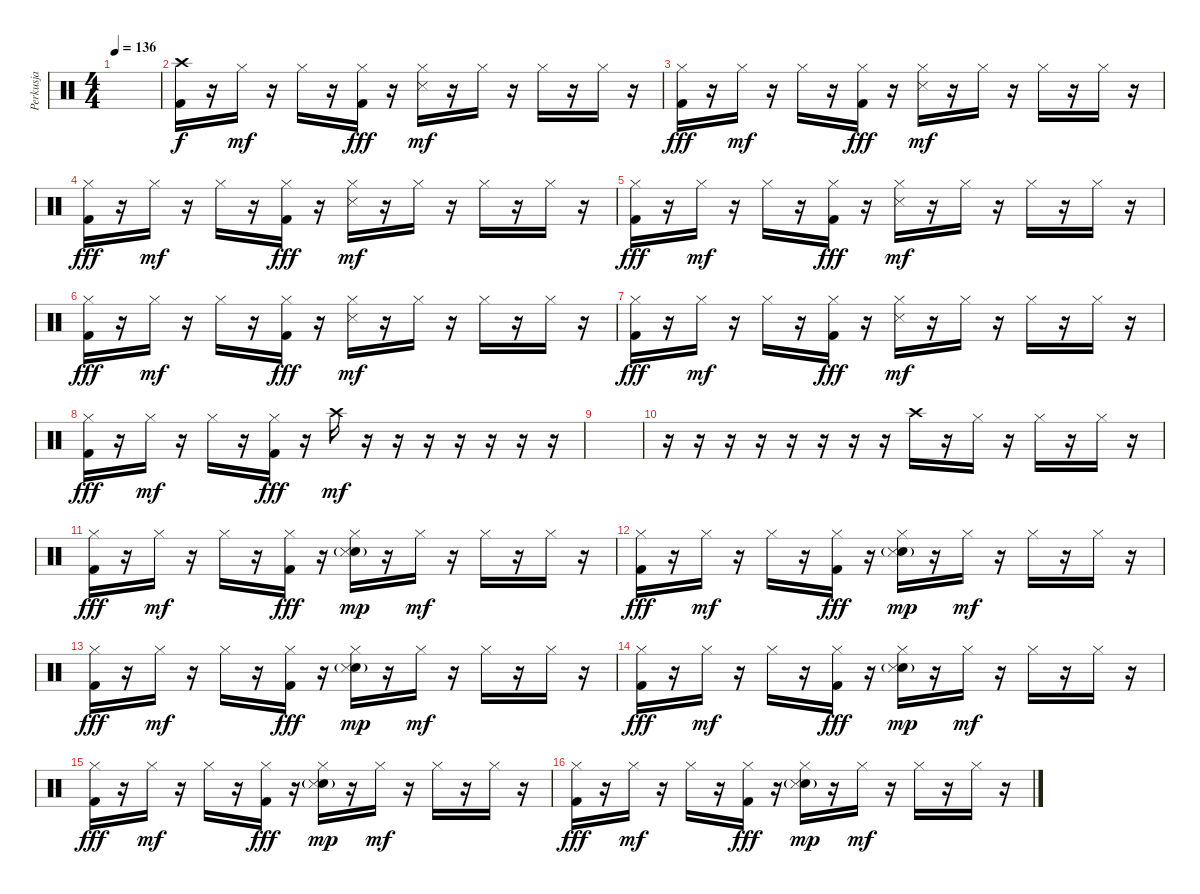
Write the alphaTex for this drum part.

\track ("Perkusja" "Perkusja") {instrument percussion}
\staff {score}
\articulation defaults
\ts (4 4)
\tempo 136
\clef neutral
\ks c
|
("Crash high (hit)" "Kick (hit) 2").16 r.16 "Hi-Hat (closed)".16{dy mf} r.16 "Hi-Hat (closed)".16 r.16 ("Hi-Hat (closed)" "Kick (hit) 2").16{dy fff} r.16 ("Hi-Hat (closed)" "Snare (side stick) 3").16{dy mf} r.16 "Hi-Hat (closed)".16 r.16 "Hi-Hat (closed)".16 r.16 "Hi-Hat (closed)".16 r.16 |
("Hi-Hat (closed)" "Kick (hit) 2").16{dy fff} r.16 "Hi-Hat (closed)".16{dy mf} r.16 "Hi-Hat (closed)".16 r.16 ("Hi-Hat (closed)" "Kick (hit) 2").16{dy fff} r.16 ("Hi-Hat (closed)" "Snare (side stick) 3").16{dy mf} r.16 "Hi-Hat (closed)".16 r.16 "Hi-Hat (closed)".16 r.16 "Hi-Hat (closed)".16 r.16 |
("Hi-Hat (closed)" "Kick (hit) 2").16{dy fff} r.16 "Hi-Hat (closed)".16{dy mf} r.16 "Hi-Hat (closed)".16 r.16 ("Hi-Hat (closed)" "Kick (hit) 2").16{dy fff} r.16 ("Hi-Hat (closed)" "Snare (side stick) 3").16{dy mf} r.16 "Hi-Hat (closed)".16 r.16 "Hi-Hat (closed)".16 r.16 "Hi-Hat (closed)".16 r.16 |
("Hi-Hat (closed)" "Kick (hit) 2").16{dy fff} r.16 "Hi-Hat (closed)".16{dy mf} r.16 "Hi-Hat (closed)".16 r.16 ("Hi-Hat (closed)" "Kick (hit) 2").16{dy fff} r.16 ("Hi-Hat (closed)" "Snare (side stick) 3").16{dy mf} r.16 "Hi-Hat (closed)".16 r.16 "Hi-Hat (closed)".16 r.16 "Hi-Hat (closed)".16 r.16 |
("Hi-Hat (closed)" "Kick (hit) 2").16{dy fff} r.16 "Hi-Hat (closed)".16{dy mf} r.16 "Hi-Hat (closed)".16 r.16 ("Hi-Hat (closed)" "Kick (hit) 2").16{dy fff} r.16 ("Hi-Hat (closed)" "Snare (side stick) 3").16{dy mf} r.16 "Hi-Hat (closed)".16 r.16 "Hi-Hat (closed)".16 r.16 "Hi-Hat (closed)".16 r.16 |
("Hi-Hat (closed)" "Kick (hit) 2").16{dy fff} r.16 "Hi-Hat (closed)".16{dy mf} r.16 "Hi-Hat (closed)".16 r.16 ("Hi-Hat (closed)" "Kick (hit) 2").16{dy fff} r.16 ("Hi-Hat (closed)" "Snare (side stick) 3").16{dy mf} r.16 "Hi-Hat (closed)".16 r.16 "Hi-Hat (closed)".16 r.16 "Hi-Hat (closed)".16 r.16 |
("Hi-Hat (closed)" "Kick (hit) 2").16{dy fff} r.16 "Hi-Hat (closed)".16{dy mf} r.16 "Hi-Hat (closed)".16 r.16 ("Hi-Hat (closed)" "Kick (hit) 2").16{dy fff} r.16 "Crash high (hit)".16{dy mf} r.16 r.16 r.16 r.16 r.16 r.16 r.16 |
|
r.16 r.16 r.16 r.16 r.16 r.16 r.16 r.16 "Crash high (hit)".16 r.16 "Hi-Hat (closed)".16 r.16 "Hi-Hat (closed)".16 r.16 "Hi-Hat (closed)".16 r.16 |
("Hi-Hat (closed)" "Kick (hit) 2").16{dy fff} r.16 "Hi-Hat (closed)".16{dy mf} r.16 "Hi-Hat (closed)".16 r.16 ("Hi-Hat (closed)" "Kick (hit) 2").16{dy fff} r.16 ("Hi-Hat (closed)" "Snare (hit) 2"{g} "Snare (side stick) 3").16{dy mp} r.16 "Hi-Hat (closed)".16{dy mf} r.16 "Hi-Hat (closed)".16 r.16 "Hi-Hat (closed)".16 r.16 |
("Hi-Hat (closed)" "Kick (hit) 2").16{dy fff} r.16 "Hi-Hat (closed)".16{dy mf} r.16 "Hi-Hat (closed)".16 r.16 ("Hi-Hat (closed)" "Kick (hit) 2").16{dy fff} r.16 ("Hi-Hat (closed)" "Snare (hit) 2"{g} "Snare (side stick) 3").16{dy mp} r.16 "Hi-Hat (closed)".16{dy mf} r.16 "Hi-Hat (closed)".16 r.16 "Hi-Hat (closed)".16 r.16 |
("Hi-Hat (closed)" "Kick (hit) 2").16{dy fff} r.16 "Hi-Hat (closed)".16{dy mf} r.16 "Hi-Hat (closed)".16 r.16 ("Hi-Hat (closed)" "Kick (hit) 2").16{dy fff} r.16 ("Hi-Hat (closed)" "Snare (hit) 2"{g} "Snare (side stick) 3").16{dy mp} r.16 "Hi-Hat (closed)".16{dy mf} r.16 "Hi-Hat (closed)".16 r.16 "Hi-Hat (closed)".16 r.16 |
("Hi-Hat (closed)" "Kick (hit) 2").16{dy fff} r.16 "Hi-Hat (closed)".16{dy mf} r.16 "Hi-Hat (closed)".16 r.16 ("Hi-Hat (closed)" "Kick (hit) 2").16{dy fff} r.16 ("Hi-Hat (closed)" "Snare (hit) 2"{g} "Snare (side stick) 3").16{dy mp} r.16 "Hi-Hat (closed)".16{dy mf} r.16 "Hi-Hat (closed)".16 r.16 "Hi-Hat (closed)".16 r.16 |
("Hi-Hat (closed)" "Kick (hit) 2").16{dy fff} r.16 "Hi-Hat (closed)".16{dy mf} r.16 "Hi-Hat (closed)".16 r.16 ("Hi-Hat (closed)" "Kick (hit) 2").16{dy fff} r.16 ("Hi-Hat (closed)" "Snare (hit) 2"{g} "Snare (side stick) 3").16{dy mp} r.16 "Hi-Hat (closed)".16{dy mf} r.16 "Hi-Hat (closed)".16 r.16 "Hi-Hat (closed)".16 r.16 |
("Hi-Hat (closed)" "Kick (hit) 2").16{dy fff} r.16 "Hi-Hat (closed)".16{dy mf} r.16 "Hi-Hat (closed)".16 r.16 ("Hi-Hat (closed)" "Kick (hit) 2").16{dy fff} r.16 ("Hi-Hat (closed)" "Snare (hit) 2"{g} "Snare (side stick) 3").16{dy mp} r.16 "Hi-Hat (closed)".16{dy mf} r.16 "Hi-Hat (closed)".16 r.16 "Hi-Hat (closed)".16 r.16
